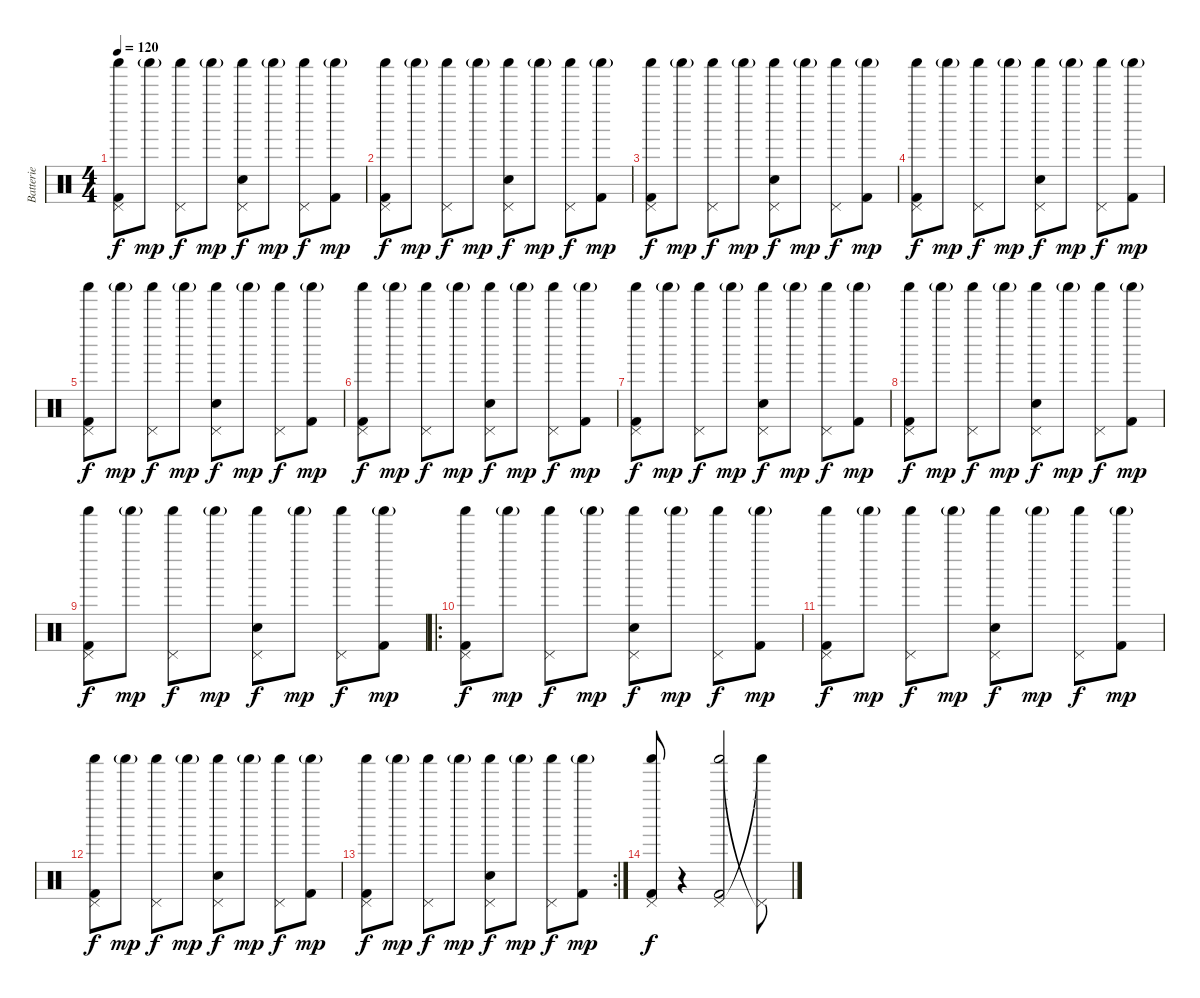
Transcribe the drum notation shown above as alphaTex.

\track ("Batterie" "Batterie") {instrument percussion}
\staff {score}
\articulation defaults
\ts (4 4)
\tempo 120
\clef neutral
\ks c
("Kick (hit) 2" "Shaker (hit)" "Pedal Hi-Hat (hit)").8{dy f} "Shaker (hit)"{g}.8{dy mp} ("Shaker (hit)" "Pedal Hi-Hat (hit)").8{dy f} "Shaker (hit)"{g}.8{dy mp} ("Electric Snare (hit)" "Shaker (hit)" "Pedal Hi-Hat (hit)").8{dy f} "Shaker (hit)"{g}.8{dy mp} ("Shaker (hit)" "Pedal Hi-Hat (hit)").8{dy f} ("Kick (hit) 2" "Shaker (hit)"{g}).8{dy mp} |
("Kick (hit) 2" "Shaker (hit)" "Pedal Hi-Hat (hit)").8{dy f} "Shaker (hit)"{g}.8{dy mp} ("Shaker (hit)" "Pedal Hi-Hat (hit)").8{dy f} "Shaker (hit)"{g}.8{dy mp} ("Electric Snare (hit)" "Shaker (hit)" "Pedal Hi-Hat (hit)").8{dy f} "Shaker (hit)"{g}.8{dy mp} ("Shaker (hit)" "Pedal Hi-Hat (hit)").8{dy f} ("Kick (hit) 2" "Shaker (hit)"{g}).8{dy mp} |
("Kick (hit) 2" "Shaker (hit)" "Pedal Hi-Hat (hit)").8{dy f} "Shaker (hit)"{g}.8{dy mp} ("Shaker (hit)" "Pedal Hi-Hat (hit)").8{dy f} "Shaker (hit)"{g}.8{dy mp} ("Electric Snare (hit)" "Shaker (hit)" "Pedal Hi-Hat (hit)").8{dy f} "Shaker (hit)"{g}.8{dy mp} ("Shaker (hit)" "Pedal Hi-Hat (hit)").8{dy f} ("Kick (hit) 2" "Shaker (hit)"{g}).8{dy mp} |
("Kick (hit) 2" "Shaker (hit)" "Pedal Hi-Hat (hit)").8{dy f} "Shaker (hit)"{g}.8{dy mp} ("Shaker (hit)" "Pedal Hi-Hat (hit)").8{dy f} "Shaker (hit)"{g}.8{dy mp} ("Electric Snare (hit)" "Shaker (hit)" "Pedal Hi-Hat (hit)").8{dy f} "Shaker (hit)"{g}.8{dy mp} ("Shaker (hit)" "Pedal Hi-Hat (hit)").8{dy f} ("Kick (hit) 2" "Shaker (hit)"{g}).8{dy mp} |
("Kick (hit) 2" "Shaker (hit)" "Pedal Hi-Hat (hit)").8{dy f} "Shaker (hit)"{g}.8{dy mp} ("Shaker (hit)" "Pedal Hi-Hat (hit)").8{dy f} "Shaker (hit)"{g}.8{dy mp} ("Electric Snare (hit)" "Shaker (hit)" "Pedal Hi-Hat (hit)").8{dy f} "Shaker (hit)"{g}.8{dy mp} ("Shaker (hit)" "Pedal Hi-Hat (hit)").8{dy f} ("Kick (hit) 2" "Shaker (hit)"{g}).8{dy mp} |
("Kick (hit) 2" "Shaker (hit)" "Pedal Hi-Hat (hit)").8{dy f} "Shaker (hit)"{g}.8{dy mp} ("Shaker (hit)" "Pedal Hi-Hat (hit)").8{dy f} "Shaker (hit)"{g}.8{dy mp} ("Electric Snare (hit)" "Shaker (hit)" "Pedal Hi-Hat (hit)").8{dy f} "Shaker (hit)"{g}.8{dy mp} ("Shaker (hit)" "Pedal Hi-Hat (hit)").8{dy f} ("Kick (hit) 2" "Shaker (hit)"{g}).8{dy mp} |
("Kick (hit) 2" "Shaker (hit)" "Pedal Hi-Hat (hit)").8{dy f} "Shaker (hit)"{g}.8{dy mp} ("Shaker (hit)" "Pedal Hi-Hat (hit)").8{dy f} "Shaker (hit)"{g}.8{dy mp} ("Electric Snare (hit)" "Shaker (hit)" "Pedal Hi-Hat (hit)").8{dy f} "Shaker (hit)"{g}.8{dy mp} ("Shaker (hit)" "Pedal Hi-Hat (hit)").8{dy f} ("Kick (hit) 2" "Shaker (hit)"{g}).8{dy mp} |
("Kick (hit) 2" "Shaker (hit)" "Pedal Hi-Hat (hit)").8{dy f} "Shaker (hit)"{g}.8{dy mp} ("Shaker (hit)" "Pedal Hi-Hat (hit)").8{dy f} "Shaker (hit)"{g}.8{dy mp} ("Electric Snare (hit)" "Shaker (hit)" "Pedal Hi-Hat (hit)").8{dy f} "Shaker (hit)"{g}.8{dy mp} ("Shaker (hit)" "Pedal Hi-Hat (hit)").8{dy f} ("Kick (hit) 2" "Shaker (hit)"{g}).8{dy mp} |
("Kick (hit) 2" "Shaker (hit)" "Pedal Hi-Hat (hit)").8{dy f} "Shaker (hit)"{g}.8{dy mp} ("Shaker (hit)" "Pedal Hi-Hat (hit)").8{dy f} "Shaker (hit)"{g}.8{dy mp} ("Electric Snare (hit)" "Shaker (hit)" "Pedal Hi-Hat (hit)").8{dy f} "Shaker (hit)"{g}.8{dy mp} ("Shaker (hit)" "Pedal Hi-Hat (hit)").8{dy f} ("Kick (hit) 2" "Shaker (hit)"{g}).8{dy mp} |
\ro
("Kick (hit) 2" "Shaker (hit)" "Pedal Hi-Hat (hit)").8{dy f} "Shaker (hit)"{g}.8{dy mp} ("Shaker (hit)" "Pedal Hi-Hat (hit)").8{dy f} "Shaker (hit)"{g}.8{dy mp} ("Electric Snare (hit)" "Shaker (hit)" "Pedal Hi-Hat (hit)").8{dy f} "Shaker (hit)"{g}.8{dy mp} ("Shaker (hit)" "Pedal Hi-Hat (hit)").8{dy f} ("Kick (hit) 2" "Shaker (hit)"{g}).8{dy mp} |
("Kick (hit) 2" "Shaker (hit)" "Pedal Hi-Hat (hit)").8{dy f} "Shaker (hit)"{g}.8{dy mp} ("Shaker (hit)" "Pedal Hi-Hat (hit)").8{dy f} "Shaker (hit)"{g}.8{dy mp} ("Electric Snare (hit)" "Shaker (hit)" "Pedal Hi-Hat (hit)").8{dy f} "Shaker (hit)"{g}.8{dy mp} ("Shaker (hit)" "Pedal Hi-Hat (hit)").8{dy f} ("Kick (hit) 2" "Shaker (hit)"{g}).8{dy mp} |
("Kick (hit) 2" "Shaker (hit)" "Pedal Hi-Hat (hit)").8{dy f} "Shaker (hit)"{g}.8{dy mp} ("Shaker (hit)" "Pedal Hi-Hat (hit)").8{dy f} "Shaker (hit)"{g}.8{dy mp} ("Electric Snare (hit)" "Shaker (hit)" "Pedal Hi-Hat (hit)").8{dy f} "Shaker (hit)"{g}.8{dy mp} ("Shaker (hit)" "Pedal Hi-Hat (hit)").8{dy f} ("Kick (hit) 2" "Shaker (hit)"{g}).8{dy mp} |
\rc 2
("Kick (hit) 2" "Shaker (hit)" "Pedal Hi-Hat (hit)").8{dy f} "Shaker (hit)"{g}.8{dy mp} ("Shaker (hit)" "Pedal Hi-Hat (hit)").8{dy f} "Shaker (hit)"{g}.8{dy mp} ("Electric Snare (hit)" "Shaker (hit)" "Pedal Hi-Hat (hit)").8{dy f} "Shaker (hit)"{g}.8{dy mp} ("Shaker (hit)" "Pedal Hi-Hat (hit)").8{dy f} ("Kick (hit) 2" "Shaker (hit)"{g}).8{dy mp} |
("Kick (hit) 2" "Shaker (hit)" "Pedal Hi-Hat (hit)").8{dy f} r.4 ("Kick (hit) 2" "Shaker (hit)" "Pedal Hi-Hat (hit)").2 ("Shaker (hit)"{t} "Pedal Hi-Hat (hit)"{t}).8
